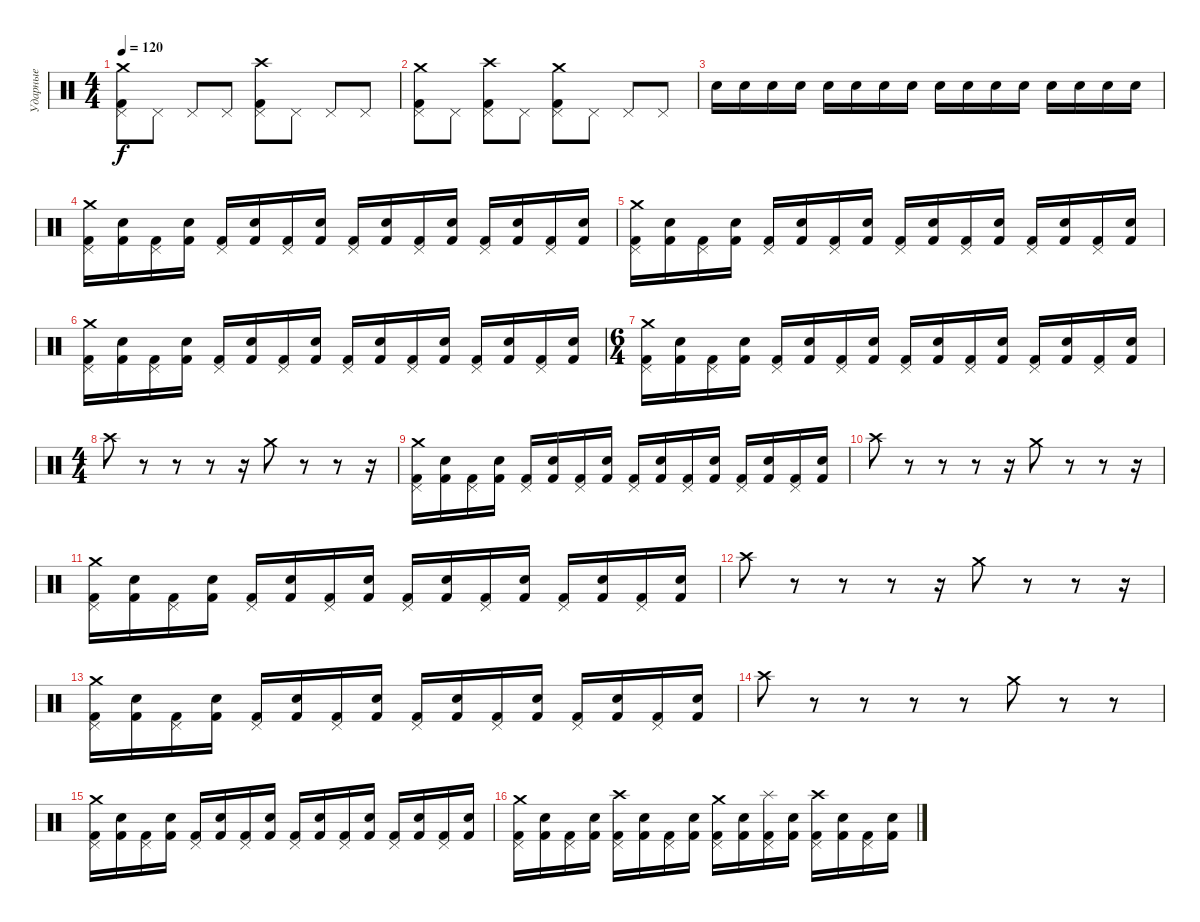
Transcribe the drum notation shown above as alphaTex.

\track ("Ударные" "Ударные") {mute instrument percussion}
\staff {score}
\articulation defaults
\ts (4 4)
\tempo 120
\clef neutral
\ks c
("Kick (hit) 2" "Pedal Hi-Hat (hit)" "Crash medium (hit)").8{dy f} "Pedal Hi-Hat (hit)".8 "Pedal Hi-Hat (hit)".8 "Pedal Hi-Hat (hit)".8 ("Kick (hit) 2" "Pedal Hi-Hat (hit)" "Crash high (hit)").8 "Pedal Hi-Hat (hit)".8 "Pedal Hi-Hat (hit)".8 "Pedal Hi-Hat (hit)".8 |
("Kick (hit) 2" "Pedal Hi-Hat (hit)" "Crash medium (hit)").8 "Pedal Hi-Hat (hit)".8 ("Kick (hit) 2" "Pedal Hi-Hat (hit)" "Crash high (hit)").8 "Pedal Hi-Hat (hit)".8 ("Kick (hit) 2" "Pedal Hi-Hat (hit)" "Crash medium (hit)").8 "Pedal Hi-Hat (hit)".8 "Pedal Hi-Hat (hit)".8 "Pedal Hi-Hat (hit)".8 |
"Electric Snare (hit)".16 "Electric Snare (hit)".16 "Electric Snare (hit)".16 "Electric Snare (hit)".16 "Electric Snare (hit)".16 "Electric Snare (hit)".16 "Electric Snare (hit)".16 "Electric Snare (hit)".16 "Electric Snare (hit)".16 "Electric Snare (hit)".16 "Electric Snare (hit)".16 "Electric Snare (hit)".16 "Electric Snare (hit)".16 "Electric Snare (hit)".16 "Electric Snare (hit)".16 "Electric Snare (hit)".16 |
("Kick (hit) 2" "Pedal Hi-Hat (hit)" "Crash medium (hit)").16 ("Kick (hit) 2" "Electric Snare (hit)").16 ("Kick (hit) 2" "Pedal Hi-Hat (hit)").16 ("Kick (hit) 2" "Electric Snare (hit)").16 ("Kick (hit) 2" "Pedal Hi-Hat (hit)").16 ("Kick (hit) 2" "Electric Snare (hit)").16 ("Kick (hit) 2" "Pedal Hi-Hat (hit)").16 ("Kick (hit) 2" "Electric Snare (hit)").16 ("Kick (hit) 2" "Pedal Hi-Hat (hit)").16 ("Kick (hit) 2" "Electric Snare (hit)").16 ("Kick (hit) 2" "Pedal Hi-Hat (hit)").16 ("Kick (hit) 2" "Electric Snare (hit)").16 ("Kick (hit) 2" "Pedal Hi-Hat (hit)").16 ("Kick (hit) 2" "Electric Snare (hit)").16 ("Kick (hit) 2" "Pedal Hi-Hat (hit)").16 ("Kick (hit) 2" "Electric Snare (hit)").16 |
("Kick (hit) 2" "Pedal Hi-Hat (hit)" "Crash medium (hit)").16 ("Kick (hit) 2" "Electric Snare (hit)").16 ("Kick (hit) 2" "Pedal Hi-Hat (hit)").16 ("Kick (hit) 2" "Electric Snare (hit)").16 ("Kick (hit) 2" "Pedal Hi-Hat (hit)").16 ("Kick (hit) 2" "Electric Snare (hit)").16 ("Kick (hit) 2" "Pedal Hi-Hat (hit)").16 ("Kick (hit) 2" "Electric Snare (hit)").16 ("Kick (hit) 2" "Pedal Hi-Hat (hit)").16 ("Kick (hit) 2" "Electric Snare (hit)").16 ("Kick (hit) 2" "Pedal Hi-Hat (hit)").16 ("Kick (hit) 2" "Electric Snare (hit)").16 ("Kick (hit) 2" "Pedal Hi-Hat (hit)").16 ("Kick (hit) 2" "Electric Snare (hit)").16 ("Kick (hit) 2" "Pedal Hi-Hat (hit)").16 ("Kick (hit) 2" "Electric Snare (hit)").16 |
("Kick (hit) 2" "Pedal Hi-Hat (hit)" "Crash medium (hit)").16 ("Kick (hit) 2" "Electric Snare (hit)").16 ("Kick (hit) 2" "Pedal Hi-Hat (hit)").16 ("Kick (hit) 2" "Electric Snare (hit)").16 ("Kick (hit) 2" "Pedal Hi-Hat (hit)").16 ("Kick (hit) 2" "Electric Snare (hit)").16 ("Kick (hit) 2" "Pedal Hi-Hat (hit)").16 ("Kick (hit) 2" "Electric Snare (hit)").16 ("Kick (hit) 2" "Pedal Hi-Hat (hit)").16 ("Kick (hit) 2" "Electric Snare (hit)").16 ("Kick (hit) 2" "Pedal Hi-Hat (hit)").16 ("Kick (hit) 2" "Electric Snare (hit)").16 ("Kick (hit) 2" "Pedal Hi-Hat (hit)").16 ("Kick (hit) 2" "Electric Snare (hit)").16 ("Kick (hit) 2" "Pedal Hi-Hat (hit)").16 ("Kick (hit) 2" "Electric Snare (hit)").16 |
\ts (6 4)
("Kick (hit) 2" "Pedal Hi-Hat (hit)" "Crash medium (hit)").16 ("Kick (hit) 2" "Electric Snare (hit)").16 ("Kick (hit) 2" "Pedal Hi-Hat (hit)").16 ("Kick (hit) 2" "Electric Snare (hit)").16 ("Kick (hit) 2" "Pedal Hi-Hat (hit)").16 ("Kick (hit) 2" "Electric Snare (hit)").16 ("Kick (hit) 2" "Pedal Hi-Hat (hit)").16 ("Kick (hit) 2" "Electric Snare (hit)").16 ("Kick (hit) 2" "Pedal Hi-Hat (hit)").16 ("Kick (hit) 2" "Electric Snare (hit)").16 ("Kick (hit) 2" "Pedal Hi-Hat (hit)").16 ("Kick (hit) 2" "Electric Snare (hit)").16 ("Kick (hit) 2" "Pedal Hi-Hat (hit)").16 ("Kick (hit) 2" "Electric Snare (hit)").16 ("Kick (hit) 2" "Pedal Hi-Hat (hit)").16 ("Kick (hit) 2" "Electric Snare (hit)").16 |
\ts (4 4)
"Crash high (hit)".8 r.8 r.8 r.8 r.16 "Crash medium (hit)".8 r.8 r.8 r.16 |
("Kick (hit) 2" "Pedal Hi-Hat (hit)" "Crash medium (hit)").16 ("Kick (hit) 2" "Electric Snare (hit)").16 ("Kick (hit) 2" "Pedal Hi-Hat (hit)").16 ("Kick (hit) 2" "Electric Snare (hit)").16 ("Kick (hit) 2" "Pedal Hi-Hat (hit)").16 ("Kick (hit) 2" "Electric Snare (hit)").16 ("Kick (hit) 2" "Pedal Hi-Hat (hit)").16 ("Kick (hit) 2" "Electric Snare (hit)").16 ("Kick (hit) 2" "Pedal Hi-Hat (hit)").16 ("Kick (hit) 2" "Electric Snare (hit)").16 ("Kick (hit) 2" "Pedal Hi-Hat (hit)").16 ("Kick (hit) 2" "Electric Snare (hit)").16 ("Kick (hit) 2" "Pedal Hi-Hat (hit)").16 ("Kick (hit) 2" "Electric Snare (hit)").16 ("Kick (hit) 2" "Pedal Hi-Hat (hit)").16 ("Kick (hit) 2" "Electric Snare (hit)").16 |
"Crash high (hit)".8 r.8 r.8 r.8 r.16 "Crash medium (hit)".8 r.8 r.8 r.16 |
("Kick (hit) 2" "Pedal Hi-Hat (hit)" "Crash medium (hit)").16 ("Kick (hit) 2" "Electric Snare (hit)").16 ("Kick (hit) 2" "Pedal Hi-Hat (hit)").16 ("Kick (hit) 2" "Electric Snare (hit)").16 ("Kick (hit) 2" "Pedal Hi-Hat (hit)").16 ("Kick (hit) 2" "Electric Snare (hit)").16 ("Kick (hit) 2" "Pedal Hi-Hat (hit)").16 ("Kick (hit) 2" "Electric Snare (hit)").16 ("Kick (hit) 2" "Pedal Hi-Hat (hit)").16 ("Kick (hit) 2" "Electric Snare (hit)").16 ("Kick (hit) 2" "Pedal Hi-Hat (hit)").16 ("Kick (hit) 2" "Electric Snare (hit)").16 ("Kick (hit) 2" "Pedal Hi-Hat (hit)").16 ("Kick (hit) 2" "Electric Snare (hit)").16 ("Kick (hit) 2" "Pedal Hi-Hat (hit)").16 ("Kick (hit) 2" "Electric Snare (hit)").16 |
"Crash high (hit)".8 r.8 r.8 r.8 r.16 "Crash medium (hit)".8 r.8 r.8 r.16 |
("Kick (hit) 2" "Pedal Hi-Hat (hit)" "Crash medium (hit)").16 ("Kick (hit) 2" "Electric Snare (hit)").16 ("Kick (hit) 2" "Pedal Hi-Hat (hit)").16 ("Kick (hit) 2" "Electric Snare (hit)").16 ("Kick (hit) 2" "Pedal Hi-Hat (hit)").16 ("Kick (hit) 2" "Electric Snare (hit)").16 ("Kick (hit) 2" "Pedal Hi-Hat (hit)").16 ("Kick (hit) 2" "Electric Snare (hit)").16 ("Kick (hit) 2" "Pedal Hi-Hat (hit)").16 ("Kick (hit) 2" "Electric Snare (hit)").16 ("Kick (hit) 2" "Pedal Hi-Hat (hit)").16 ("Kick (hit) 2" "Electric Snare (hit)").16 ("Kick (hit) 2" "Pedal Hi-Hat (hit)").16 ("Kick (hit) 2" "Electric Snare (hit)").16 ("Kick (hit) 2" "Pedal Hi-Hat (hit)").16 ("Kick (hit) 2" "Electric Snare (hit)").16 |
"Crash high (hit)".8 r.8 r.8 r.8 r.8 "Crash medium (hit)".8 r.8 r.8 |
("Kick (hit) 2" "Pedal Hi-Hat (hit)" "Crash medium (hit)").16 ("Kick (hit) 2" "Electric Snare (hit)").16 ("Kick (hit) 2" "Pedal Hi-Hat (hit)").16 ("Kick (hit) 2" "Electric Snare (hit)").16 ("Kick (hit) 2" "Pedal Hi-Hat (hit)").16 ("Kick (hit) 2" "Electric Snare (hit)").16 ("Kick (hit) 2" "Pedal Hi-Hat (hit)").16 ("Kick (hit) 2" "Electric Snare (hit)").16 ("Kick (hit) 2" "Pedal Hi-Hat (hit)").16 ("Kick (hit) 2" "Electric Snare (hit)").16 ("Kick (hit) 2" "Pedal Hi-Hat (hit)").16 ("Kick (hit) 2" "Electric Snare (hit)").16 ("Kick (hit) 2" "Pedal Hi-Hat (hit)").16 ("Kick (hit) 2" "Electric Snare (hit)").16 ("Kick (hit) 2" "Pedal Hi-Hat (hit)").16 ("Kick (hit) 2" "Electric Snare (hit)").16 |
("Kick (hit) 2" "Pedal Hi-Hat (hit)" "Crash medium (hit)").16 ("Kick (hit) 2" "Electric Snare (hit)").16 ("Kick (hit) 2" "Pedal Hi-Hat (hit)").16 ("Kick (hit) 2" "Electric Snare (hit)").16 ("Kick (hit) 2" "Pedal Hi-Hat (hit)" "Crash high (hit)").16 ("Kick (hit) 2" "Electric Snare (hit)").16 ("Kick (hit) 2" "Pedal Hi-Hat (hit)").16 ("Kick (hit) 2" "Electric Snare (hit)").16 ("Kick (hit) 2" "Pedal Hi-Hat (hit)" "Crash medium (hit)").16 ("Kick (hit) 2" "Electric Snare (hit)").16 ("Kick (hit) 2" "Pedal Hi-Hat (hit)" "Splash (hit)").16 ("Kick (hit) 2" "Electric Snare (hit)").16 ("Kick (hit) 2" "Pedal Hi-Hat (hit)" "Crash high (hit)").16 ("Kick (hit) 2" "Electric Snare (hit)").16 ("Kick (hit) 2" "Pedal Hi-Hat (hit)").16 ("Kick (hit) 2" "Electric Snare (hit)").16
